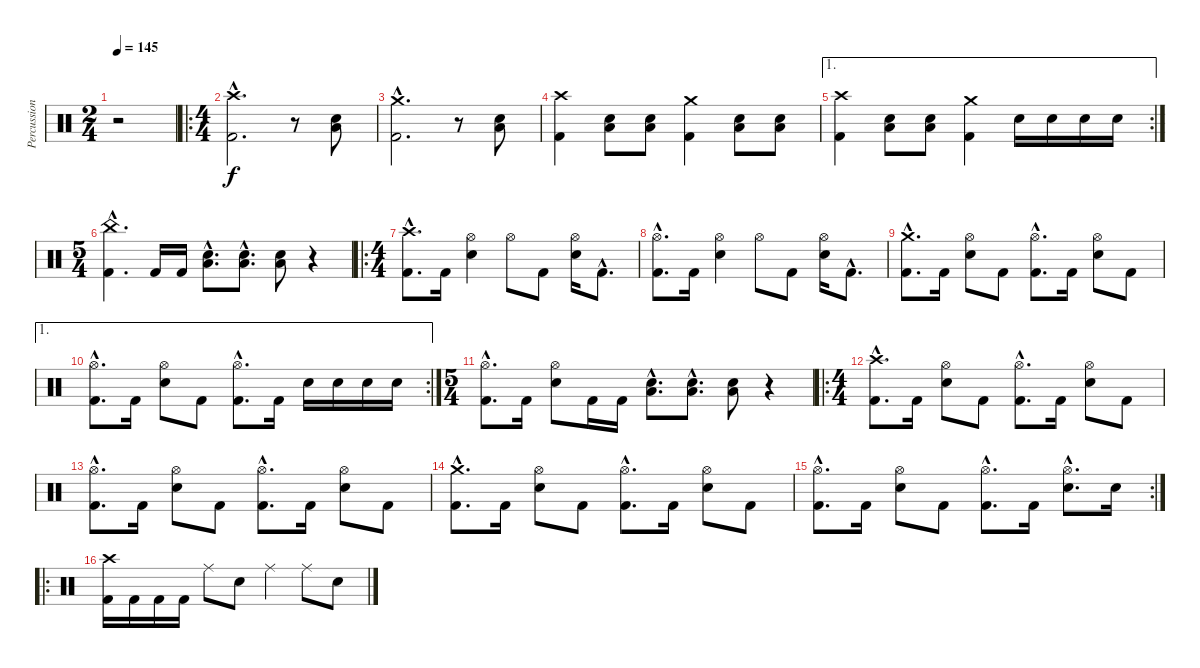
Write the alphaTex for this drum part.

\track ("Percussions" "Percussion") {instrument percussion}
\staff {score}
\articulation defaults
\ts (2 4)
\tempo 145
\clef neutral
\ks c
r.2{dy f} |
\ro
\ts (4 4)
("Crash high (hit)"{hac} "Kick (hit) 2"{hac}).2{d} r.8 ("Low Floor Tom (hit)" "Electric Snare (hit)").8 |
("Crash medium (hit)"{hac} "Kick (hit) 2"{hac}).2{d} r.8 ("Low Floor Tom (hit)" "Electric Snare (hit)").8 |
("Crash high (hit)" "Kick (hit) 2").4 ("Low Floor Tom (hit)" "Electric Snare (hit)").8 ("Low Floor Tom (hit)" "Electric Snare (hit)").8 ("Crash medium (hit)" "Kick (hit) 2").4 ("Low Floor Tom (hit)" "Electric Snare (hit)").8 ("Low Floor Tom (hit)" "Electric Snare (hit)").8 |
\ae 1
\rc 2
("Crash high (hit)" "Kick (hit) 2").4 ("Low Floor Tom (hit)" "Electric Snare (hit)").8 ("Low Floor Tom (hit)" "Electric Snare (hit)").8 ("Crash medium (hit)" "Kick (hit) 2").4 "Electric Snare (hit)".16 "Electric Snare (hit)".16 "Electric Snare (hit)".16 "Electric Snare (hit)".16 |
\ts (5 4)
("China (hit)"{hac} "Kick (hit) 2"{hac}).4{d} "Kick (hit) 2".16 "Kick (hit) 2".16 ("Low Floor Tom (hit)"{hac} "Electric Snare (hit)"{hac}).8{d} ("Low Floor Tom (hit)"{hac} "Electric Snare (hit)"{hac}).8{d} ("Low Floor Tom (hit)" "Electric Snare (hit)").8 r.4 |
\ro
\ts (4 4)
("Crash high (hit)"{hac} "Kick (hit) 2"{hac}).8{d} "Kick (hit) 2".16 ("Hi-Hat (open)" "Electric Snare (hit)").4 "Hi-Hat (open)".8 "Kick (hit) 2".8 ("Hi-Hat (open)" "Electric Snare (hit)").16 "Kick (hit) 2"{hac}.8{d} |
("Hi-Hat (open)"{hac} "Kick (hit) 2"{hac}).8{d} "Kick (hit) 2".16 ("Hi-Hat (open)" "Electric Snare (hit)").4 "Hi-Hat (open)".8 "Kick (hit) 2".8 ("Hi-Hat (open)" "Electric Snare (hit)").16 "Kick (hit) 2"{hac}.8{d} |
("Crash medium (hit)"{hac} "Kick (hit) 2"{hac}).8{d} "Kick (hit) 2".16 ("Hi-Hat (open)" "Electric Snare (hit)").8 "Kick (hit) 2".8 ("Hi-Hat (open)"{hac} "Kick (hit) 2"{hac}).8{d} "Kick (hit) 2".16 ("Hi-Hat (open)" "Electric Snare (hit)").8 "Kick (hit) 2".8 |
\ae 1
\rc 2
("Hi-Hat (open)"{hac} "Kick (hit) 2"{hac}).8{d} "Kick (hit) 2".16 ("Hi-Hat (open)" "Electric Snare (hit)").8 "Kick (hit) 2".8 ("Hi-Hat (open)"{hac} "Kick (hit) 2"{hac}).8{d} "Kick (hit) 2".16 "Electric Snare (hit)".16 "Electric Snare (hit)".16 "Electric Snare (hit)".16 "Electric Snare (hit)".16 |
\ts (5 4)
("Hi-Hat (open)"{hac} "Kick (hit) 2"{hac}).8{d} "Kick (hit) 2".16 ("Hi-Hat (open)" "Electric Snare (hit)").8 "Kick (hit) 2".16 "Kick (hit) 2".16 ("Low Floor Tom (hit)"{hac} "Electric Snare (hit)"{hac}).8{d} ("Low Floor Tom (hit)"{hac} "Electric Snare (hit)"{hac}).8{d} ("Low Floor Tom (hit)" "Electric Snare (hit)").8 r.4 |
\ro
\ts (4 4)
("Crash high (hit)"{hac} "Kick (hit) 2"{hac}).8{d} "Kick (hit) 2".16 ("Hi-Hat (open)" "Electric Snare (hit)").8 "Kick (hit) 2".8 ("Hi-Hat (open)"{hac} "Kick (hit) 2"{hac}).8{d} "Kick (hit) 2".16 ("Hi-Hat (open)" "Electric Snare (hit)").8 "Kick (hit) 2".8 |
("Hi-Hat (open)"{hac} "Kick (hit) 2"{hac}).8{d} "Kick (hit) 2".16 ("Hi-Hat (open)" "Electric Snare (hit)").8 "Kick (hit) 2".8 ("Hi-Hat (open)"{hac} "Kick (hit) 2"{hac}).8{d} "Kick (hit) 2".16 ("Hi-Hat (open)" "Electric Snare (hit)").8 "Kick (hit) 2".8 |
("Crash medium (hit)"{hac} "Kick (hit) 2"{hac}).8{d} "Kick (hit) 2".16 ("Hi-Hat (open)" "Electric Snare (hit)").8 "Kick (hit) 2".8 ("Hi-Hat (open)"{hac} "Kick (hit) 2"{hac}).8{d} "Kick (hit) 2".16 ("Hi-Hat (open)" "Electric Snare (hit)").8 "Kick (hit) 2".8 |
\rc 2
("Hi-Hat (open)"{hac} "Kick (hit) 2"{hac}).8{d} "Kick (hit) 2".16 ("Hi-Hat (open)" "Electric Snare (hit)").8 "Kick (hit) 2".8 ("Hi-Hat (open)"{hac} "Kick (hit) 2"{hac}).8{d} "Kick (hit) 2".16 ("Hi-Hat (open)"{hac} "Electric Snare (hit)"{hac}).8{d} "Electric Snare (hit)".16 |
\ro
("Crash high (hit)" "Kick (hit) 2").16 "Kick (hit) 2".16 "Kick (hit) 2".16 "Kick (hit) 2".16 "Ride (middle)".8 "Electric Snare (hit)".8 "Ride (middle)".4 "Ride (middle)".8 "Electric Snare (hit)".8
